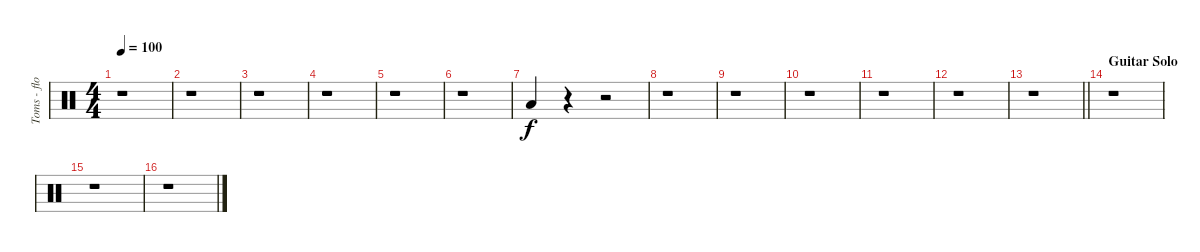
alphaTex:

\track ("Toms - floor" "Toms - flo") {instrument percussion}
\staff {score}
\articulation defaults
\ts (4 4)
\tempo 100
\clef neutral
\ks c
r.1{dy f} |
r.1 |
r.1 |
r.1 |
r.1 |
r.1 |
"Low Tom (hit)".4 r.4 r.2 |
r.1 |
r.1 |
r.1 |
r.1 |
r.1 |
\barLineRight lightlight
r.1 |
\section ("" "Guitar Solo")
r.1 |
r.1 |
r.1
